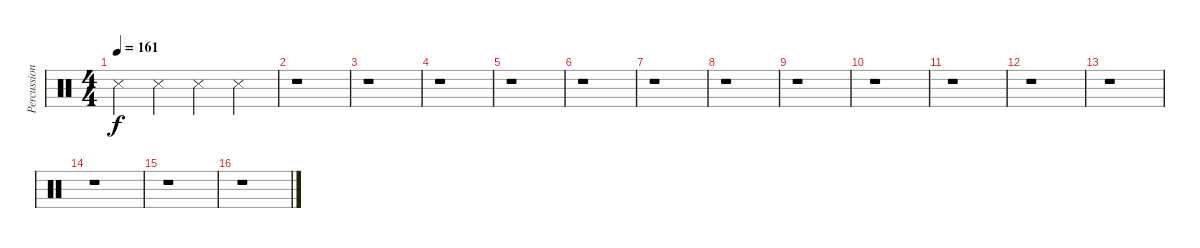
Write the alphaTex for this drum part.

\track ("Percussions" "Percussion") {instrument percussion}
\staff {score}
\articulation defaults
\ts (4 4)
\tempo 161
\clef neutral
\ks c "Metronome (hit)".4{dy f} "Metronome (hit)".4 "Metronome (hit)".4 "Metronome (hit)".4
|
r.1 |
r.1 |
r.1 |
r.1 |
r.1 |
r.1 |
r.1 |
r.1 |
r.1 |
r.1 |
r.1 |
r.1 |
r.1 |
r.1 |
r.1
